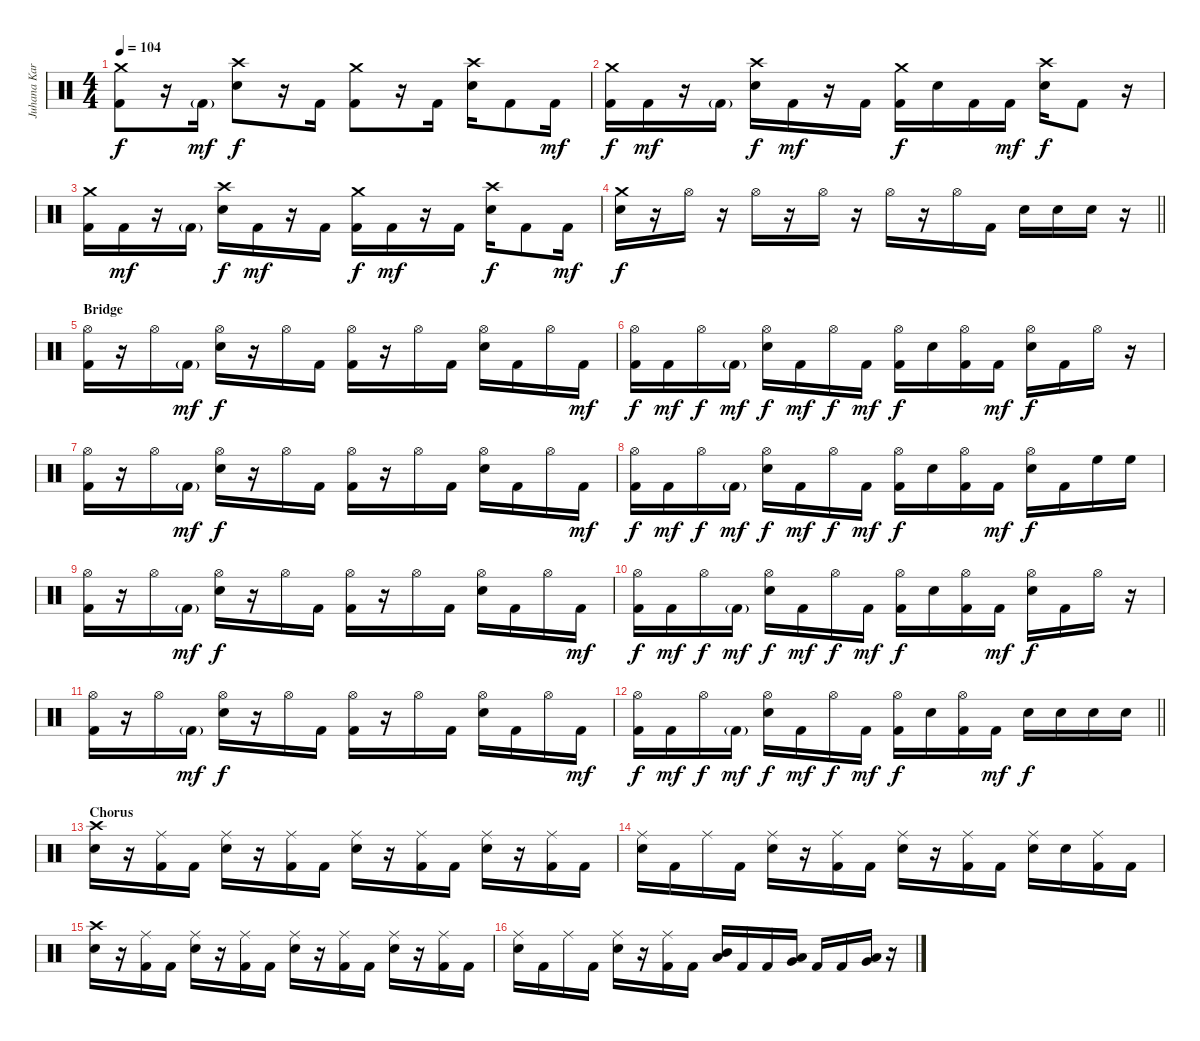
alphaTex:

\track ("Juhana Karlsson" "Juhana Kar") {instrument percussion}
\staff {score}
\articulation defaults
\ts (4 4)
\tempo 104
\clef neutral
\ks c
("Crash medium (hit)" "Kick (hit) 2").8{dy f} r.16 "Kick (hit) 2"{g}.16{dy mf} ("Crash high (hit)" "Electric Snare (hit)").8{dy f} r.16 "Kick (hit) 2".16 ("Crash medium (hit)" "Kick (hit) 2").8 r.16 "Kick (hit) 2".16 ("Crash high (hit)" "Electric Snare (hit)").16 "Kick (hit) 2".8 "Kick (hit) 2".16{dy mf} |
("Crash medium (hit)" "Kick (hit) 2").16{dy f} "Kick (hit) 2".16{dy mf} r.16 "Kick (hit) 2"{g}.16 ("Crash high (hit)" "Electric Snare (hit)").16{dy f} "Kick (hit) 2".16{dy mf} r.16 "Kick (hit) 2".16 ("Crash medium (hit)" "Kick (hit) 2").16{dy f} "Electric Snare (hit)".16 "Kick (hit) 2".16 "Kick (hit) 2".16{dy mf} ("Crash high (hit)" "Electric Snare (hit)").16{dy f} "Kick (hit) 2".8 r.16 |
("Crash medium (hit)" "Kick (hit) 2").16 "Kick (hit) 2".16{dy mf} r.16 "Kick (hit) 2"{g}.16 ("Crash high (hit)" "Electric Snare (hit)").16{dy f} "Kick (hit) 2".16{dy mf} r.16 "Kick (hit) 2".16 ("Crash medium (hit)" "Kick (hit) 2").16{dy f} "Kick (hit) 2".16{dy mf} r.16 "Kick (hit) 2".16 ("Crash high (hit)" "Electric Snare (hit)").16{dy f} "Kick (hit) 2".8 "Kick (hit) 2".16{dy mf} |
\barLineRight lightlight
("Crash medium (hit)" "Electric Snare (hit)").16{dy f} r.16 "Hi-Hat (open)".16 r.16 "Hi-Hat (open)".16 r.16 "Hi-Hat (open)".16 r.16 "Hi-Hat (open)".16 r.16 "Hi-Hat (open)".16 "Kick (hit) 2".16 "Electric Snare (hit)".16 "Electric Snare (hit)".16 "Electric Snare (hit)".16 r.16 |
\section ("" "Bridge")
("Hi-Hat (open)" "Kick (hit) 2").16 r.16 "Hi-Hat (open)".16 "Kick (hit) 2"{g}.16{dy mf} ("Hi-Hat (open)" "Electric Snare (hit)").16{dy f} r.16 "Hi-Hat (open)".16 "Kick (hit) 2".16 ("Hi-Hat (open)" "Kick (hit) 2").16 r.16 "Hi-Hat (open)".16 "Kick (hit) 2".16 ("Hi-Hat (open)" "Electric Snare (hit)").16 "Kick (hit) 2".16 "Hi-Hat (open)".16 "Kick (hit) 2".16{dy mf} |
("Hi-Hat (open)" "Kick (hit) 2").16{dy f} "Kick (hit) 2".16{dy mf} "Hi-Hat (open)".16{dy f} "Kick (hit) 2"{g}.16{dy mf} ("Hi-Hat (open)" "Electric Snare (hit)").16{dy f} "Kick (hit) 2".16{dy mf} "Hi-Hat (open)".16{dy f} "Kick (hit) 2".16{dy mf} ("Hi-Hat (open)" "Kick (hit) 2").16{dy f} "Electric Snare (hit)".16 ("Hi-Hat (open)" "Kick (hit) 2").16 "Kick (hit) 2".16{dy mf} ("Hi-Hat (open)" "Electric Snare (hit)").16{dy f} "Kick (hit) 2".16 "Hi-Hat (open)".16 r.16 |
("Hi-Hat (open)" "Kick (hit) 2").16 r.16 "Hi-Hat (open)".16 "Kick (hit) 2"{g}.16{dy mf} ("Hi-Hat (open)" "Electric Snare (hit)").16{dy f} r.16 "Hi-Hat (open)".16 "Kick (hit) 2".16 ("Hi-Hat (open)" "Kick (hit) 2").16 r.16 "Hi-Hat (open)".16 "Kick (hit) 2".16 ("Hi-Hat (open)" "Electric Snare (hit)").16 "Kick (hit) 2".16 "Hi-Hat (open)".16 "Kick (hit) 2".16{dy mf} |
("Hi-Hat (open)" "Kick (hit) 2").16{dy f} "Kick (hit) 2".16{dy mf} "Hi-Hat (open)".16{dy f} "Kick (hit) 2"{g}.16{dy mf} ("Hi-Hat (open)" "Electric Snare (hit)").16{dy f} "Kick (hit) 2".16{dy mf} "Hi-Hat (open)".16{dy f} "Kick (hit) 2".16{dy mf} ("Hi-Hat (open)" "Kick (hit) 2").16{dy f} "Electric Snare (hit)".16 ("Hi-Hat (open)" "Kick (hit) 2").16 "Kick (hit) 2".16{dy mf} ("Hi-Hat (open)" "Electric Snare (hit)").16{dy f} "Kick (hit) 2".16 "High Floor Tom (hit)".16 "High Floor Tom (hit)".16 |
("Hi-Hat (open)" "Kick (hit) 2").16 r.16 "Hi-Hat (open)".16 "Kick (hit) 2"{g}.16{dy mf} ("Hi-Hat (open)" "Electric Snare (hit)").16{dy f} r.16 "Hi-Hat (open)".16 "Kick (hit) 2".16 ("Hi-Hat (open)" "Kick (hit) 2").16 r.16 "Hi-Hat (open)".16 "Kick (hit) 2".16 ("Hi-Hat (open)" "Electric Snare (hit)").16 "Kick (hit) 2".16 "Hi-Hat (open)".16 "Kick (hit) 2".16{dy mf} |
("Hi-Hat (open)" "Kick (hit) 2").16{dy f} "Kick (hit) 2".16{dy mf} "Hi-Hat (open)".16{dy f} "Kick (hit) 2"{g}.16{dy mf} ("Hi-Hat (open)" "Electric Snare (hit)").16{dy f} "Kick (hit) 2".16{dy mf} "Hi-Hat (open)".16{dy f} "Kick (hit) 2".16{dy mf} ("Hi-Hat (open)" "Kick (hit) 2").16{dy f} "Electric Snare (hit)".16 ("Hi-Hat (open)" "Kick (hit) 2").16 "Kick (hit) 2".16{dy mf} ("Hi-Hat (open)" "Electric Snare (hit)").16{dy f} "Kick (hit) 2".16 "Hi-Hat (open)".16 r.16 |
("Hi-Hat (open)" "Kick (hit) 2").16 r.16 "Hi-Hat (open)".16 "Kick (hit) 2"{g}.16{dy mf} ("Hi-Hat (open)" "Electric Snare (hit)").16{dy f} r.16 "Hi-Hat (open)".16 "Kick (hit) 2".16 ("Hi-Hat (open)" "Kick (hit) 2").16 r.16 "Hi-Hat (open)".16 "Kick (hit) 2".16 ("Hi-Hat (open)" "Electric Snare (hit)").16 "Kick (hit) 2".16 "Hi-Hat (open)".16 "Kick (hit) 2".16{dy mf} |
\barLineRight lightlight
("Hi-Hat (open)" "Kick (hit) 2").16{dy f} "Kick (hit) 2".16{dy mf} "Hi-Hat (open)".16{dy f} "Kick (hit) 2"{g}.16{dy mf} ("Hi-Hat (open)" "Electric Snare (hit)").16{dy f} "Kick (hit) 2".16{dy mf} "Hi-Hat (open)".16{dy f} "Kick (hit) 2".16{dy mf} ("Hi-Hat (open)" "Kick (hit) 2").16{dy f} "Electric Snare (hit)".16 ("Hi-Hat (open)" "Kick (hit) 2").16 "Kick (hit) 2".16{dy mf} "Electric Snare (hit)".16{dy f} "Electric Snare (hit)".16 "Electric Snare (hit)".16 "Electric Snare (hit)".16 |
\section ("" "Chorus")
("Crash high (hit)" "Electric Snare (hit)").16 r.16 ("Ride (middle)" "Kick (hit) 2").16 "Kick (hit) 2".16 ("Ride (middle)" "Electric Snare (hit)").16 r.16 ("Ride (middle)" "Kick (hit) 2").16 "Kick (hit) 2".16 ("Ride (middle)" "Electric Snare (hit)").16 r.16 ("Ride (middle)" "Kick (hit) 2").16 "Kick (hit) 2".16 ("Ride (middle)" "Electric Snare (hit)").16 r.16 ("Ride (middle)" "Kick (hit) 2").16 "Kick (hit) 2".16 |
("Ride (middle)" "Electric Snare (hit)").16 "Kick (hit) 2".16 "Ride (middle)".16 "Kick (hit) 2".16 ("Ride (middle)" "Electric Snare (hit)").16 r.16 ("Ride (middle)" "Kick (hit) 2").16 "Kick (hit) 2".16 ("Ride (middle)" "Electric Snare (hit)").16 r.16 ("Ride (middle)" "Kick (hit) 2").16 "Kick (hit) 2".16 ("Ride (middle)" "Electric Snare (hit)").16 "Electric Snare (hit)".16 ("Ride (middle)" "Kick (hit) 2").16 "Kick (hit) 2".16 |
("Crash high (hit)" "Electric Snare (hit)").16 r.16 ("Ride (middle)" "Kick (hit) 2").16 "Kick (hit) 2".16 ("Ride (middle)" "Electric Snare (hit)").16 r.16 ("Ride (middle)" "Kick (hit) 2").16 "Kick (hit) 2".16 ("Ride (middle)" "Electric Snare (hit)").16 r.16 ("Ride (middle)" "Kick (hit) 2").16 "Kick (hit) 2".16 ("Ride (middle)" "Electric Snare (hit)").16 r.16 ("Ride (middle)" "Kick (hit) 2").16 "Kick (hit) 2".16 |
("Ride (middle)" "Electric Snare (hit)").16 "Kick (hit) 2".16 "Ride (middle)".16 "Kick (hit) 2".16 ("Ride (middle)" "Electric Snare (hit)").16 r.16 ("Ride (middle)" "Kick (hit) 2").16 "Kick (hit) 2".16 ("Mid Tom (hit)" "Low Tom (hit)").16 "Kick (hit) 2".16 "Kick (hit) 2".16 ("Low Tom (hit)" "Very Low Tom (hit)").16 "Kick (hit) 2".16 "Kick (hit) 2".16 ("Very Low Tom (hit)" "Low Floor Tom (hit)").16 r.16
